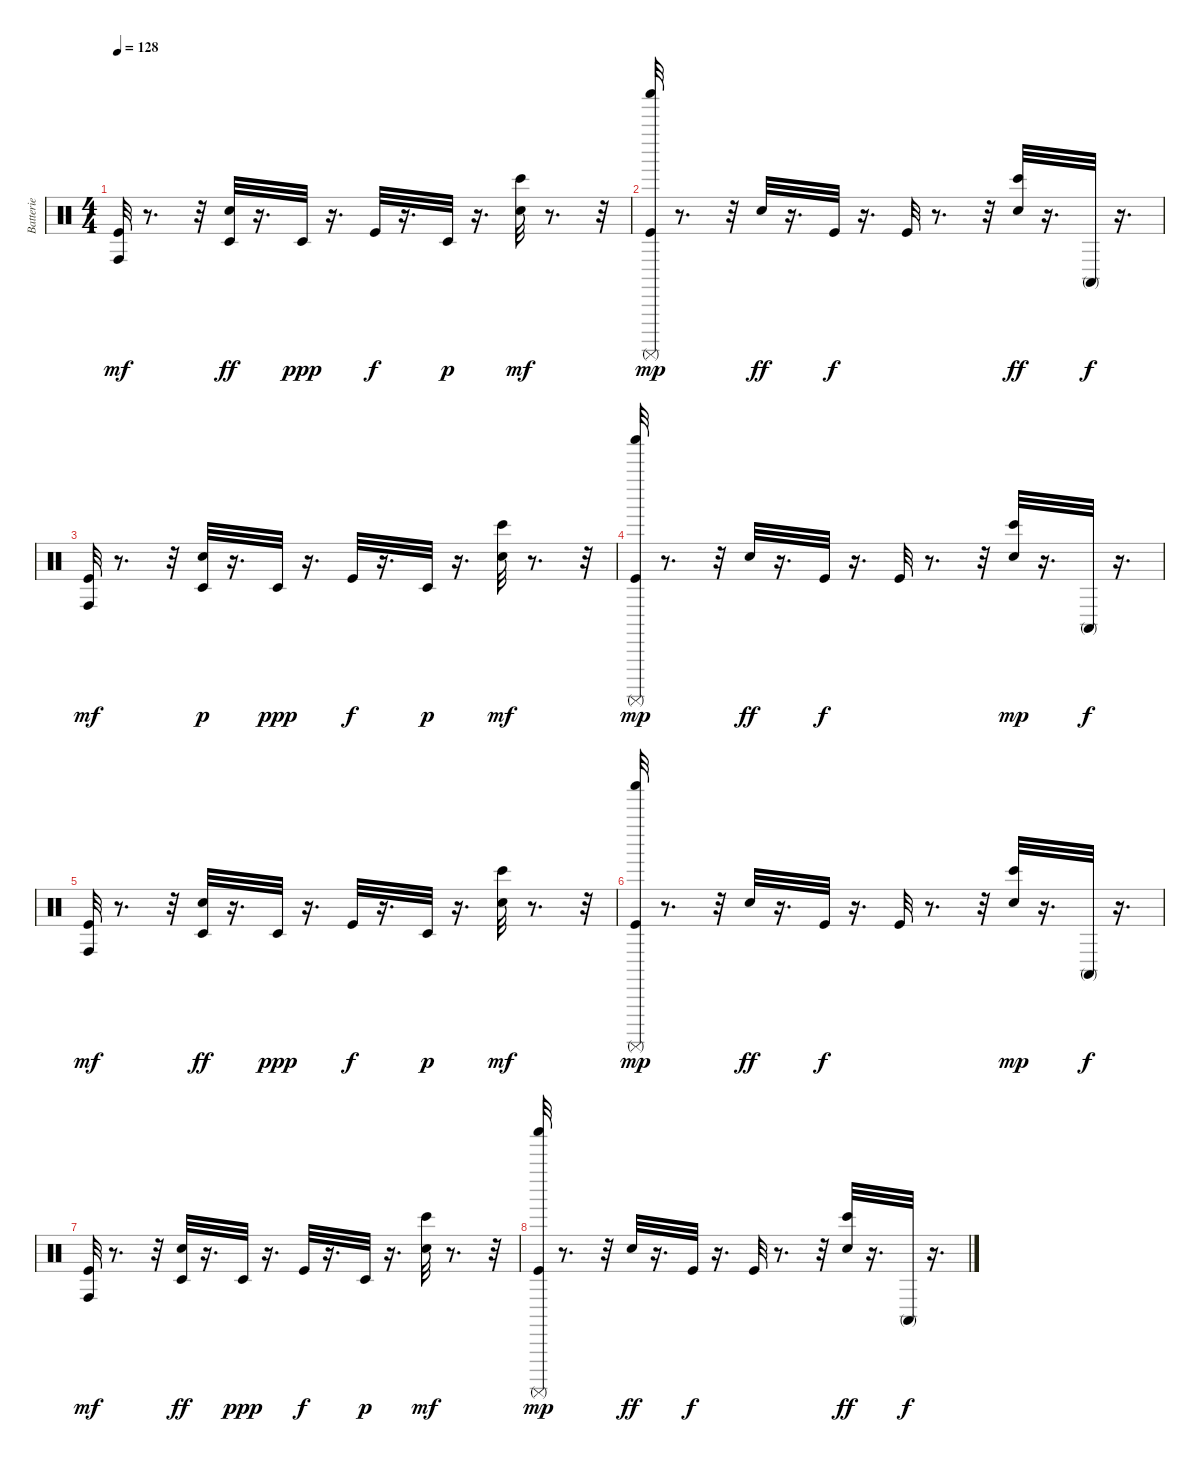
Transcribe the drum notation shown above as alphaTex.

\track ("Batterie" "Batterie") {instrument percussion}
\staff {score}
\articulation defaults
\ts (4 4)
\tempo 128
\clef neutral
\ks c
("Conga high (hit)" "Kick (hit)").32{dy mf} r.8{d} r.32 ("Timbale low (hit)" "Electric Snare (hit)").32{dy ff} r.16{d} "Timbale low (hit)".32{dy ppp} r.16{d} "Kick (hit)".32{dy f} r.16{d} "Timbale low (hit)".32{dy p} r.16{d} ("Electric Snare (hit)" "Bongo High (hit)").32{dy mf} r.8{d} r.32 |
("Shaker (hit)" "Surdo (mute)" "Kick (hit)").32{dy mp} r.8{d} r.32 "Electric Snare (hit)".32{dy ff} r.16{d} "Kick (hit)".32{dy f} r.16{d} "Kick (hit)".32 r.8{d} r.32 ("Bongo High (hit)" "Electric Snare (hit)").32{dy ff} r.16{d} "Conga high (mute)".32{dy f} r.16{d} |
("Conga high (hit)" "Kick (hit)").32{dy mf} r.8{d} r.32 ("Electric Snare (hit)" "Timbale low (hit)").32{dy p} r.16{d} "Timbale low (hit)".32{dy ppp} r.16{d} "Kick (hit)".32{dy f} r.16{d} "Timbale low (hit)".32{dy p} r.16{d} ("Electric Snare (hit)" "Bongo High (hit)").32{dy mf} r.8{d} r.32 |
("Surdo (mute)" "Kick (hit)" "Shaker (hit)").32{dy mp} r.8{d} r.32 "Electric Snare (hit)".32{dy ff} r.16{d} "Kick (hit)".32{dy f} r.16{d} "Kick (hit)".32 r.8{d} r.32 ("Electric Snare (hit)" "Bongo High (hit)").32{dy mp} r.16{d} "Conga high (mute)".32{dy f} r.16{d} |
("Kick (hit)" "Conga high (hit)").32{dy mf} r.8{d} r.32 ("Timbale low (hit)" "Electric Snare (hit)").32{dy ff} r.16{d} "Timbale low (hit)".32{dy ppp} r.16{d} "Kick (hit)".32{dy f} r.16{d} "Timbale low (hit)".32{dy p} r.16{d} ("Electric Snare (hit)" "Bongo High (hit)").32{dy mf} r.8{d} r.32 |
("Shaker (hit)" "Surdo (mute)" "Kick (hit)").32{dy mp} r.8{d} r.32 "Electric Snare (hit)".32{dy ff} r.16{d} "Kick (hit)".32{dy f} r.16{d} "Kick (hit)".32 r.8{d} r.32 ("Electric Snare (hit)" "Bongo High (hit)").32{dy mp} r.16{d} "Conga high (mute)".32{dy f} r.16{d} |
("Kick (hit)" "Conga high (hit)").32{dy mf} r.8{d} r.32 ("Timbale low (hit)" "Electric Snare (hit)").32{dy ff} r.16{d} "Timbale low (hit)".32{dy ppp} r.16{d} "Kick (hit)".32{dy f} r.16{d} "Timbale low (hit)".32{dy p} r.16{d} ("Electric Snare (hit)" "Bongo High (hit)").32{dy mf} r.8{d} r.32 |
("Shaker (hit)" "Surdo (mute)" "Kick (hit)").32{dy mp} r.8{d} r.32 "Electric Snare (hit)".32{dy ff} r.16{d} "Kick (hit)".32{dy f} r.16{d} "Kick (hit)".32 r.8{d} r.32 ("Bongo High (hit)" "Electric Snare (hit)").32{dy ff} r.16{d} "Conga high (mute)".32{dy f} r.16{d}
